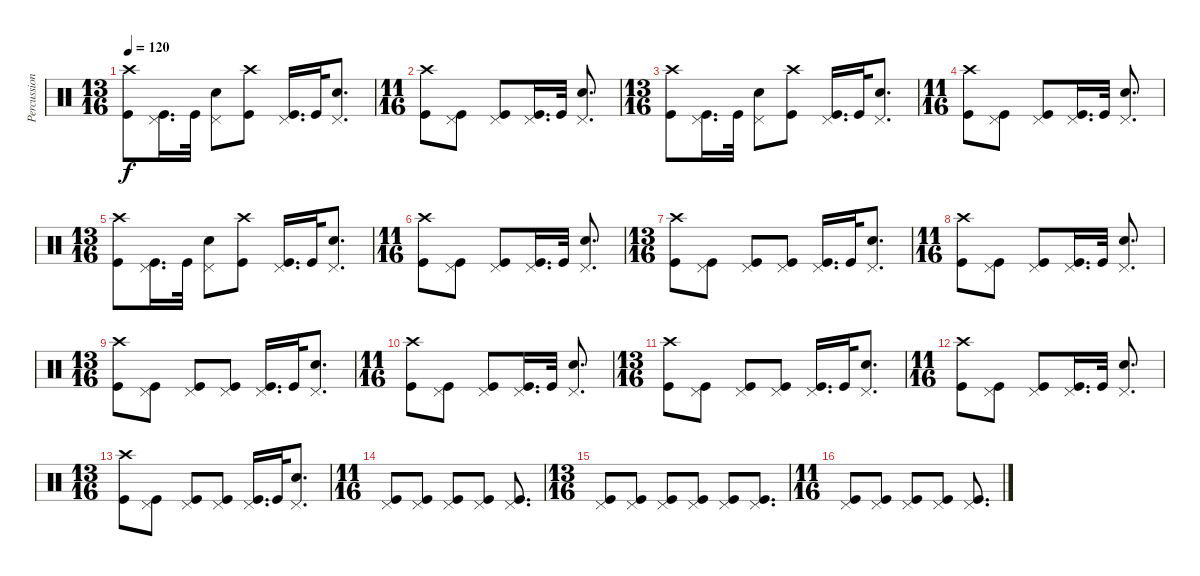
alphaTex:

\track ("Percussion" "Percussion") {instrument percussion}
\staff {score}
\articulation defaults
\ts (13 16)
\tempo 120
\clef neutral
\ks c
("Crash high (hit)" "Kick (hit)").8{dy f} ("Pedal Hi-Hat (hit)" "Kick (hit)").16{d} "Kick (hit)".32 ("Pedal Hi-Hat (hit)" "Snare (hit) 2").8 ("Crash high (hit)" "Kick (hit)").8 ("Pedal Hi-Hat (hit)" "Kick (hit)").16{d} "Kick (hit)".32 ("Pedal Hi-Hat (hit)" "Snare (hit) 2").8{d} |
\ts (11 16)
("Crash high (hit)" "Kick (hit)").8 ("Pedal Hi-Hat (hit)" "Kick (hit)").8 ("Pedal Hi-Hat (hit)" "Kick (hit)").8 ("Pedal Hi-Hat (hit)" "Kick (hit)").16{d} "Kick (hit)".32 ("Pedal Hi-Hat (hit)" "Snare (hit) 2").8{d} |
\ts (13 16)
("Crash high (hit)" "Kick (hit)").8 ("Pedal Hi-Hat (hit)" "Kick (hit)").16{d} "Kick (hit)".32 ("Pedal Hi-Hat (hit)" "Snare (hit) 2").8 ("Crash high (hit)" "Kick (hit)").8 ("Pedal Hi-Hat (hit)" "Kick (hit)").16{d} "Kick (hit)".32 ("Pedal Hi-Hat (hit)" "Snare (hit) 2").8{d} |
\ts (11 16)
("Crash high (hit)" "Kick (hit)").8 ("Pedal Hi-Hat (hit)" "Kick (hit)").8 ("Pedal Hi-Hat (hit)" "Kick (hit)").8 ("Pedal Hi-Hat (hit)" "Kick (hit)").16{d} "Kick (hit)".32 ("Pedal Hi-Hat (hit)" "Snare (hit) 2").8{d} |
\ts (13 16)
("Crash high (hit)" "Kick (hit)").8 ("Pedal Hi-Hat (hit)" "Kick (hit)").16{d} "Kick (hit)".32 ("Pedal Hi-Hat (hit)" "Snare (hit) 2").8 ("Crash high (hit)" "Kick (hit)").8 ("Pedal Hi-Hat (hit)" "Kick (hit)").16{d} "Kick (hit)".32 ("Pedal Hi-Hat (hit)" "Snare (hit) 2").8{d} |
\ts (11 16)
("Crash high (hit)" "Kick (hit)").8 ("Pedal Hi-Hat (hit)" "Kick (hit)").8 ("Pedal Hi-Hat (hit)" "Kick (hit)").8 ("Pedal Hi-Hat (hit)" "Kick (hit)").16{d} "Kick (hit)".32 ("Pedal Hi-Hat (hit)" "Snare (hit) 2").8{d} |
\ts (13 16)
("Crash high (hit)" "Kick (hit)").8 ("Pedal Hi-Hat (hit)" "Kick (hit)").8 ("Pedal Hi-Hat (hit)" "Kick (hit)").8 ("Pedal Hi-Hat (hit)" "Kick (hit)").8 ("Pedal Hi-Hat (hit)" "Kick (hit)").16{d} "Kick (hit)".32 ("Pedal Hi-Hat (hit)" "Snare (hit) 2").8{d} |
\ts (11 16)
("Crash high (hit)" "Kick (hit)").8 ("Pedal Hi-Hat (hit)" "Kick (hit)").8 ("Pedal Hi-Hat (hit)" "Kick (hit)").8 ("Pedal Hi-Hat (hit)" "Kick (hit)").16{d} "Kick (hit)".32 ("Pedal Hi-Hat (hit)" "Snare (hit) 2").8{d} |
\ts (13 16)
("Crash high (hit)" "Kick (hit)").8 ("Pedal Hi-Hat (hit)" "Kick (hit)").8 ("Pedal Hi-Hat (hit)" "Kick (hit)").8 ("Pedal Hi-Hat (hit)" "Kick (hit)").8 ("Pedal Hi-Hat (hit)" "Kick (hit)").16{d} "Kick (hit)".32 ("Pedal Hi-Hat (hit)" "Snare (hit) 2").8{d} |
\ts (11 16)
("Crash high (hit)" "Kick (hit)").8 ("Pedal Hi-Hat (hit)" "Kick (hit)").8 ("Pedal Hi-Hat (hit)" "Kick (hit)").8 ("Pedal Hi-Hat (hit)" "Kick (hit)").16{d} "Kick (hit)".32 ("Pedal Hi-Hat (hit)" "Snare (hit) 2").8{d} |
\ts (13 16)
("Crash high (hit)" "Kick (hit)").8 ("Pedal Hi-Hat (hit)" "Kick (hit)").8 ("Pedal Hi-Hat (hit)" "Kick (hit)").8 ("Pedal Hi-Hat (hit)" "Kick (hit)").8 ("Pedal Hi-Hat (hit)" "Kick (hit)").16{d} "Kick (hit)".32 ("Pedal Hi-Hat (hit)" "Snare (hit) 2").8{d} |
\ts (11 16)
("Crash high (hit)" "Kick (hit)").8 ("Pedal Hi-Hat (hit)" "Kick (hit)").8 ("Pedal Hi-Hat (hit)" "Kick (hit)").8 ("Pedal Hi-Hat (hit)" "Kick (hit)").16{d} "Kick (hit)".32 ("Pedal Hi-Hat (hit)" "Snare (hit) 2").8{d} |
\ts (13 16)
("Crash high (hit)" "Kick (hit)").8 ("Pedal Hi-Hat (hit)" "Kick (hit)").8 ("Pedal Hi-Hat (hit)" "Kick (hit)").8 ("Pedal Hi-Hat (hit)" "Kick (hit)").8 ("Pedal Hi-Hat (hit)" "Kick (hit)").16{d} "Kick (hit)".32 ("Pedal Hi-Hat (hit)" "Snare (hit) 2").8{d} |
\ts (11 16)
("Pedal Hi-Hat (hit)" "Kick (hit)").8 ("Pedal Hi-Hat (hit)" "Kick (hit)").8 ("Pedal Hi-Hat (hit)" "Kick (hit)").8 ("Pedal Hi-Hat (hit)" "Kick (hit)").8 ("Pedal Hi-Hat (hit)" "Kick (hit)").8{d} |
\ts (13 16)
("Pedal Hi-Hat (hit)" "Kick (hit)").8 ("Pedal Hi-Hat (hit)" "Kick (hit)").8 ("Pedal Hi-Hat (hit)" "Kick (hit)").8 ("Pedal Hi-Hat (hit)" "Kick (hit)").8 ("Pedal Hi-Hat (hit)" "Kick (hit)").8 ("Pedal Hi-Hat (hit)" "Kick (hit)").8{d} |
\ts (11 16)
("Pedal Hi-Hat (hit)" "Kick (hit)").8 ("Pedal Hi-Hat (hit)" "Kick (hit)").8 ("Pedal Hi-Hat (hit)" "Kick (hit)").8 ("Pedal Hi-Hat (hit)" "Kick (hit)").8 ("Pedal Hi-Hat (hit)" "Kick (hit)").8{d}
